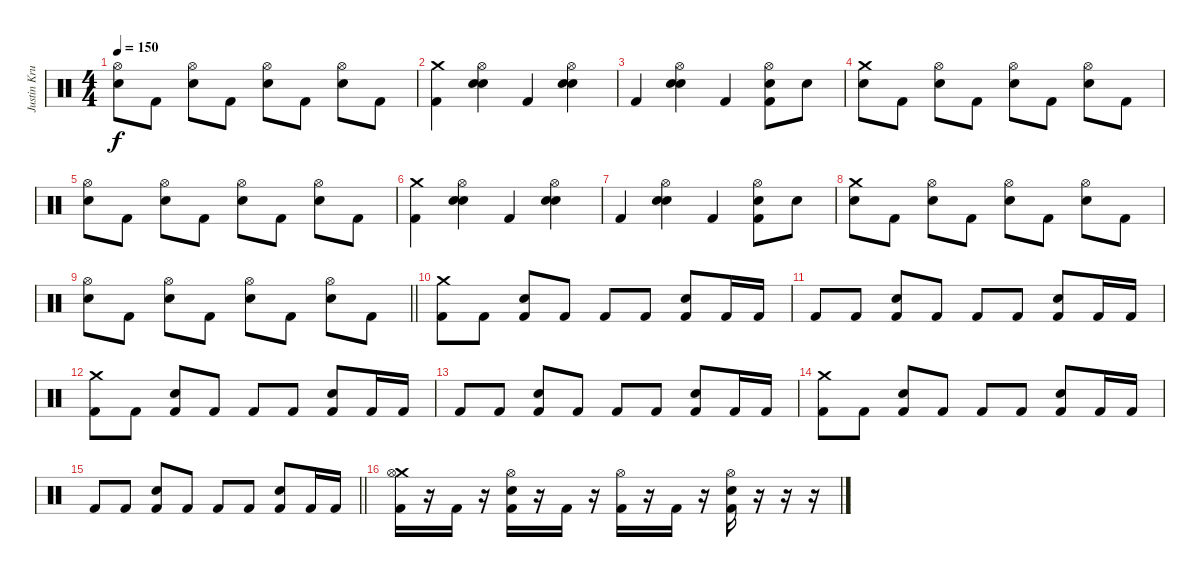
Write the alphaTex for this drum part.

\track ("Justin Kruger" "Justin Kru") {instrument percussion}
\staff {score}
\articulation defaults
\ts (4 4)
\tempo 150
\clef neutral
\ks c
("Hi-Hat (open)" "Snare (hit) 2").8{dy f} "Kick (hit) 2".8 ("Hi-Hat (open)" "Snare (hit) 2").8 "Kick (hit) 2".8 ("Hi-Hat (open)" "Snare (hit) 2").8 "Kick (hit) 2".8 ("Hi-Hat (open)" "Snare (hit) 2").8 "Kick (hit) 2".8 |
("Crash medium (hit)" "Kick (hit) 2").4 ("Hi-Hat (open)" "Snare (hit) 2" "Snare (hit) 2").4 "Kick (hit) 2".4 ("Hi-Hat (open)" "Snare (hit) 2" "Snare (hit) 2").4 |
"Kick (hit) 2".4 ("Hi-Hat (open)" "Snare (hit) 2" "Snare (hit) 2").4 "Kick (hit) 2".4 ("Hi-Hat (open)" "Snare (hit) 2" "Kick (hit) 2").8 "Snare (hit) 2".8 |
("Crash medium (hit)" "Snare (hit) 2").8 "Kick (hit) 2".8 ("Hi-Hat (open)" "Snare (hit) 2").8 "Kick (hit) 2".8 ("Hi-Hat (open)" "Snare (hit) 2").8 "Kick (hit) 2".8 ("Hi-Hat (open)" "Snare (hit) 2").8 "Kick (hit) 2".8 |
("Hi-Hat (open)" "Snare (hit) 2").8 "Kick (hit) 2".8 ("Hi-Hat (open)" "Snare (hit) 2").8 "Kick (hit) 2".8 ("Hi-Hat (open)" "Snare (hit) 2").8 "Kick (hit) 2".8 ("Hi-Hat (open)" "Snare (hit) 2").8 "Kick (hit) 2".8 |
("Crash medium (hit)" "Kick (hit) 2").4 ("Hi-Hat (open)" "Snare (hit) 2" "Snare (hit) 2").4 "Kick (hit) 2".4 ("Hi-Hat (open)" "Snare (hit) 2" "Snare (hit) 2").4 |
"Kick (hit) 2".4 ("Hi-Hat (open)" "Snare (hit) 2" "Snare (hit) 2").4 "Kick (hit) 2".4 ("Hi-Hat (open)" "Snare (hit) 2" "Kick (hit) 2").8 "Snare (hit) 2".8 |
("Crash medium (hit)" "Snare (hit) 2").8 "Kick (hit) 2".8 ("Hi-Hat (open)" "Snare (hit) 2").8 "Kick (hit) 2".8 ("Hi-Hat (open)" "Snare (hit) 2").8 "Kick (hit) 2".8 ("Hi-Hat (open)" "Snare (hit) 2").8 "Kick (hit) 2".8 |
\barLineRight lightlight
("Hi-Hat (open)" "Snare (hit) 2").8 "Kick (hit) 2".8 ("Hi-Hat (open)" "Snare (hit) 2").8 "Kick (hit) 2".8 ("Hi-Hat (open)" "Snare (hit) 2").8 "Kick (hit) 2".8 ("Hi-Hat (open)" "Snare (hit) 2").8 "Kick (hit) 2".8 |
\section ("" "")
("Crash medium (hit)" "Kick (hit) 2").8 "Kick (hit) 2".8 ("Electric Snare (hit)" "Kick (hit) 2").8 "Kick (hit) 2".8 "Kick (hit) 2".8 "Kick (hit) 2".8 ("Electric Snare (hit)" "Kick (hit) 2").8 "Kick (hit) 2".16 "Kick (hit) 2".16 |
"Kick (hit) 2".8 "Kick (hit) 2".8 ("Electric Snare (hit)" "Kick (hit) 2").8 "Kick (hit) 2".8 "Kick (hit) 2".8 "Kick (hit) 2".8 ("Electric Snare (hit)" "Kick (hit) 2").8 "Kick (hit) 2".16 "Kick (hit) 2".16 |
("Crash medium (hit)" "Kick (hit) 2").8 "Kick (hit) 2".8 ("Electric Snare (hit)" "Kick (hit) 2").8 "Kick (hit) 2".8 "Kick (hit) 2".8 "Kick (hit) 2".8 ("Electric Snare (hit)" "Kick (hit) 2").8 "Kick (hit) 2".16 "Kick (hit) 2".16 |
"Kick (hit) 2".8 "Kick (hit) 2".8 ("Electric Snare (hit)" "Kick (hit) 2").8 "Kick (hit) 2".8 "Kick (hit) 2".8 "Kick (hit) 2".8 ("Electric Snare (hit)" "Kick (hit) 2").8 "Kick (hit) 2".16 "Kick (hit) 2".16 |
("Crash medium (hit)" "Kick (hit) 2").8 "Kick (hit) 2".8 ("Electric Snare (hit)" "Kick (hit) 2").8 "Kick (hit) 2".8 "Kick (hit) 2".8 "Kick (hit) 2".8 ("Electric Snare (hit)" "Kick (hit) 2").8 "Kick (hit) 2".16 "Kick (hit) 2".16 |
\barLineRight lightlight "Kick (hit) 2".8 "Kick (hit) 2".8
("Electric Snare (hit)" "Kick (hit) 2").8 "Kick (hit) 2".8 "Kick (hit) 2".8 "Kick (hit) 2".8 ("Electric Snare (hit)" "Kick (hit) 2").8 "Kick (hit) 2".16 "Kick (hit) 2".16 |
\section ("" "")
("Crash medium (hit)" "Hi-Hat (open)" "Kick (hit) 2").16 r.16 "Kick (hit) 2".16 r.16 ("Hi-Hat (open)" "Snare (hit) 2" "Kick (hit) 2").16 r.16 "Kick (hit) 2".16 r.16 ("Hi-Hat (open)" "Kick (hit) 2").16 r.16 "Kick (hit) 2".16 r.16 ("Hi-Hat (open)" "Snare (hit) 2" "Kick (hit) 2").16 r.16 r.16 r.16
